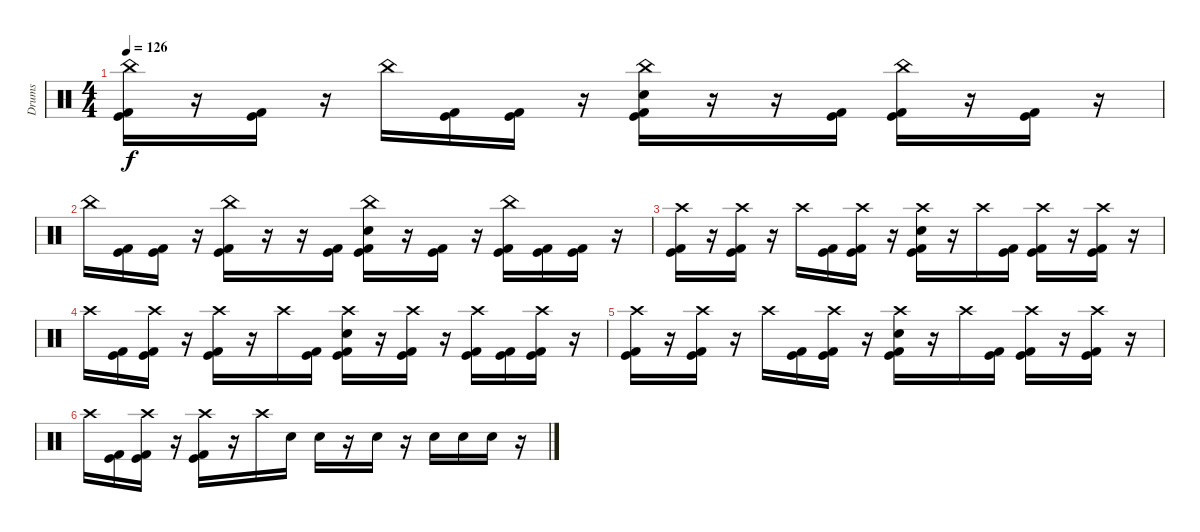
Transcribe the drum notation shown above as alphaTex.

\track ("Drums" "Drums") {instrument percussion}
\staff {score}
\articulation defaults
\ts (4 4)
\tempo 126
\clef neutral
\ks c
("China (hit)" "Kick (hit)" "Kick (hit) 2").16{dy f} r.16 ("Kick (hit)" "Kick (hit) 2").16 r.16 "China (hit)".16 ("Kick (hit)" "Kick (hit) 2").16 ("Kick (hit)" "Kick (hit) 2").16 r.16 ("China (hit)" "Kick (hit)" "Electric Snare (hit)" "Kick (hit) 2").16 r.16 r.16 ("Kick (hit)" "Kick (hit) 2").16 ("China (hit)" "Kick (hit)" "Kick (hit) 2").16 r.16 ("Kick (hit)" "Kick (hit) 2").16 r.16 |
"China (hit)".16 ("Kick (hit)" "Kick (hit) 2").16 ("Kick (hit)" "Kick (hit) 2").16 r.16 ("China (hit)" "Kick (hit)" "Kick (hit) 2").16 r.16 r.16 ("Kick (hit)" "Kick (hit) 2").16 ("China (hit)" "Kick (hit)" "Electric Snare (hit)" "Kick (hit) 2").16 r.16 ("Kick (hit)" "Kick (hit) 2").16 r.16 ("China (hit)" "Kick (hit)" "Kick (hit) 2").16 ("Kick (hit)" "Kick (hit) 2").16 ("Kick (hit)" "Kick (hit) 2").16 r.16 |
("Crash high (hit)" "Kick (hit)" "Kick (hit) 2").16 r.16 ("Crash high (hit)" "Kick (hit)" "Kick (hit) 2").16 r.16 "Crash high (hit)".16 ("Kick (hit)" "Kick (hit) 2").16 ("Crash high (hit)" "Kick (hit)" "Kick (hit) 2").16 r.16 ("Crash high (hit)" "Kick (hit)" "Electric Snare (hit)" "Kick (hit) 2").16 r.16 "Crash high (hit)".16 ("Kick (hit)" "Kick (hit) 2").16 ("Crash high (hit)" "Kick (hit)" "Kick (hit) 2").16 r.16 ("Crash high (hit)" "Kick (hit)" "Kick (hit) 2").16 r.16 |
"Crash high (hit)".16 ("Kick (hit)" "Kick (hit) 2").16 ("Crash high (hit)" "Kick (hit)" "Kick (hit) 2").16 r.16 ("Crash high (hit)" "Kick (hit)" "Kick (hit) 2").16 r.16 "Crash high (hit)".16 ("Kick (hit)" "Kick (hit) 2").16 ("Crash high (hit)" "Kick (hit)" "Electric Snare (hit)" "Kick (hit) 2").16 r.16 ("Crash high (hit)" "Kick (hit)" "Kick (hit) 2").16 r.16 ("Crash high (hit)" "Kick (hit)" "Kick (hit) 2").16 ("Kick (hit)" "Kick (hit) 2").16 ("Crash high (hit)" "Kick (hit)" "Kick (hit) 2").16 r.16 |
("Crash high (hit)" "Kick (hit)" "Kick (hit) 2").16 r.16 ("Crash high (hit)" "Kick (hit)" "Kick (hit) 2").16 r.16 "Crash high (hit)".16 ("Kick (hit)" "Kick (hit) 2").16 ("Crash high (hit)" "Kick (hit)" "Kick (hit) 2").16 r.16 ("Crash high (hit)" "Kick (hit)" "Electric Snare (hit)" "Kick (hit) 2").16 r.16 "Crash high (hit)".16 ("Kick (hit)" "Kick (hit) 2").16 ("Crash high (hit)" "Kick (hit)" "Kick (hit) 2").16 r.16 ("Crash high (hit)" "Kick (hit)" "Kick (hit) 2").16 r.16 |
"Crash high (hit)".16 ("Kick (hit)" "Kick (hit) 2").16 ("Crash high (hit)" "Kick (hit)" "Kick (hit) 2").16 r.16 ("Crash high (hit)" "Kick (hit)" "Kick (hit) 2").16 r.16 "Crash high (hit)".16 "Electric Snare (hit)".16 "Electric Snare (hit)".16 r.16 "Electric Snare (hit)".16 r.16 "Electric Snare (hit)".16 "Electric Snare (hit)".16 "Electric Snare (hit)".16 r.16
